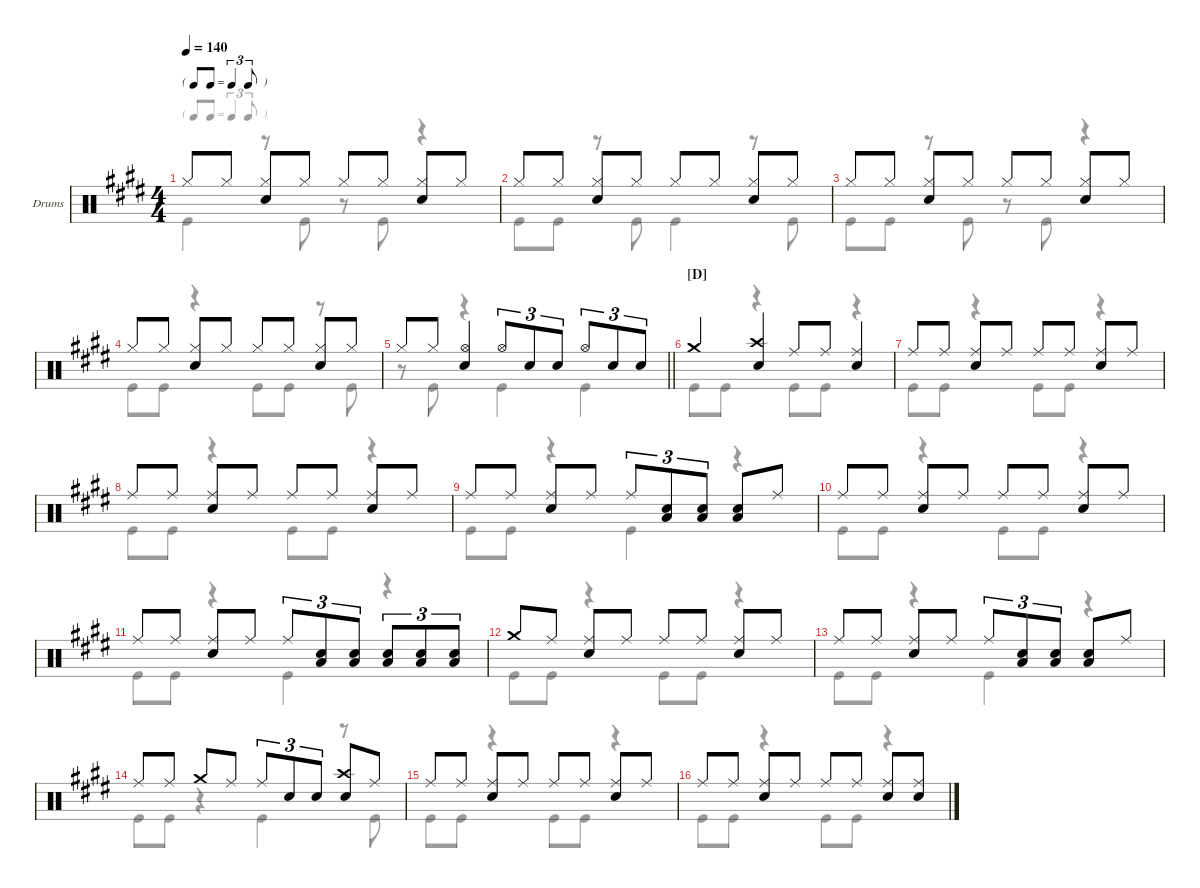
\hideDynamics
\bracketExtendMode groupsimilarinstruments
\firstSystemTrackNameOrientation horizontal
\otherSystemsTrackNameOrientation horizontal
\track ("Drumkit" "Drums") {instrument percussion}
\staff {score}
\articulation defaults
\voice
\ts (4 4)
\tf triplet8th
\scale
0.299825
\tempo 140
\accidentals auto
\clef neutral
\ottava regular
\simile none
\ks e "Hi-Hat (closed)".8{dy f} "Hi-Hat (closed)".8
("Hi-Hat (closed)" "Snare (hit) 2").8 "Hi-Hat (closed)".8 "Hi-Hat (closed)".8 "Hi-Hat (closed)".8 ("Hi-Hat (closed)" "Snare (hit) 2").8 "Hi-Hat (closed)".8 |
\scale
0.312183 "Hi-Hat (closed)".8 "Hi-Hat (closed)".8 ("Hi-Hat (closed)" "Snare (hit) 2").8 "Hi-Hat (closed)".8 "Hi-Hat (closed)".8 "Hi-Hat (closed)".8 ("Hi-Hat (closed)" "Snare (hit) 2").8 "Hi-Hat (closed)".8 |
\scale
0.22556 "Hi-Hat (closed)".8 "Hi-Hat (closed)".8 ("Hi-Hat (closed)" "Snare (hit) 2").8 "Hi-Hat (closed)".8 "Hi-Hat (closed)".8 "Hi-Hat (closed)".8 ("Hi-Hat (closed)" "Snare (hit) 2").8 "Hi-Hat (closed)".8 |
\scale
0.235129 "Hi-Hat (closed)".8 "Hi-Hat (closed)".8 ("Hi-Hat (closed)" "Snare (hit) 2").8 "Hi-Hat (closed)".8 "Hi-Hat (closed)".8 "Hi-Hat (closed)".8 ("Hi-Hat (closed)" "Snare (hit) 2").8 "Hi-Hat (closed)".8 |
\scale
0.394194
\scale
0.227942
\barLineRight lightlight "Hi-Hat (closed)".8 "Hi-Hat (closed)".8
("Hi-Hat (open)" "Snare (hit) 2").4 "Hi-Hat (open)".8{tu (3 2)} "Snare (hit) 2".8{tu (3 2)} "Snare (hit) 2".8{tu (3 2)} "Hi-Hat (open)".8{tu (3 2)} "Snare (hit) 2".8{tu (3 2)} "Snare (hit) 2".8{tu (3 2)} |
\section ("D" "")
\scale
0.301274
\scale
0.306455 "Crash medium (hit)".4 ("Crash high (hit)" "Snare (hit) 2").4 "Ride (middle)".8 "Ride (middle)".8 ("Ride (middle)" "Snare (hit) 2").4 |
\scale
0.305184
\scale
0.228233 "Ride (middle)".8 "Ride (middle)".8 ("Ride (middle)" "Snare (hit) 2").8 "Ride (middle)".8 "Ride (middle)".8 "Ride (middle)".8 ("Ride (middle)" "Snare (hit) 2").8 "Ride (middle)".8 |
\scale
0.384099
\scale
0.233723 "Ride (middle)".8 "Ride (middle)".8 ("Ride (middle)" "Snare (hit) 2").8 "Ride (middle)".8 "Ride (middle)".8 "Ride (middle)".8 ("Ride (middle)" "Snare (hit) 2").8 "Ride (middle)".8 |
\scale
0.329011
\scale
0.232195 "Ride (middle)".8 "Ride (middle)".8 ("Ride (middle)" "Snare (hit) 2").8 "Ride (middle)".8 "Ride (middle)".8{tu (3 2)} ("Snare (hit) 2" "Low Tom (hit)").8{tu (3 2)} ("Snare (hit) 2" "Low Tom (hit)").8{tu (3 2)} ("Snare (hit) 2" "Low Tom (hit)").8 "Ride (middle)".8 |
\scale
0.282913 "Ride (middle)".8 "Ride (middle)".8 ("Ride (middle)" "Snare (hit) 2").8 "Ride (middle)".8 "Ride (middle)".8 "Ride (middle)".8 ("Ride (middle)" "Snare (hit) 2").8 "Ride (middle)".8 |
\scale
0.39393 "Ride (middle)".8 "Ride (middle)".8 ("Ride (middle)" "Snare (hit) 2").8 "Ride (middle)".8 "Ride (middle)".8{tu (3 2)} ("Snare (hit) 2" "Low Tom (hit)").8{tu (3 2)} ("Snare (hit) 2" "Low Tom (hit)").8{tu (3 2)} ("Snare (hit) 2" "Low Tom (hit)").8{tu (3 2)} ("Snare (hit) 2" "Low Tom (hit)").8{tu (3 2)} ("Snare (hit) 2" "Low Tom (hit)").8{tu (3 2)} |
\scale
0.309876 "Crash medium (hit)".8 "Ride (middle)".8 ("Ride (middle)" "Snare (hit) 2").8 "Ride (middle)".8 "Ride (middle)".8 "Ride (middle)".8 ("Ride (middle)" "Snare (hit) 2").8 "Ride (middle)".8 |
\scale
0.296886 "Ride (middle)".8 "Ride (middle)".8 ("Ride (middle)" "Snare (hit) 2").8 "Ride (middle)".8 "Ride (middle)".8{tu (3 2)} ("Snare (hit) 2" "Low Tom (hit)").8{tu (3 2)} ("Snare (hit) 2" "Low Tom (hit)").8{tu (3 2)} ("Snare (hit) 2" "Low Tom (hit)").8 "Ride (middle)".8 |
\scale
0.436755 "Ride (middle)".8 "Ride (middle)".8 "Crash medium (hit)".8 "Ride (middle)".8 "Ride (middle)".8{tu (3 2)} "Snare (hit) 2".8{tu (3 2)} "Snare (hit) 2".8{tu (3 2)} ("Crash high (hit)" "Snare (hit) 2").8 "Ride (middle)".8 |
\scale
0.302785 "Ride (middle)".8 "Ride (middle)".8 ("Ride (middle)" "Snare (hit) 2").8 "Ride (middle)".8 "Ride (middle)".8 "Ride (middle)".8 ("Ride (middle)" "Snare (hit) 2").8 "Ride (middle)".8 |
\scale
0.321625 "Ride (middle)".8 "Ride (middle)".8 ("Ride (middle)" "Snare (hit) 2").8 "Ride (middle)".8 "Ride (middle)".8 "Ride (middle)".8 ("Ride (middle)" "Snare (hit) 2").8 ("Ride (middle)" "Snare (hit) 2").8
\voice
\clef neutral
\ottava regular
\simile none
\ks e "Kick (hit)".4{dy mf}
r.8 "Kick (hit)".8 r.8 "Kick (hit)".8 r.4 |
\scale
0.312183 "Kick (hit)".8 "Kick (hit)".8 r.8 "Kick (hit)".8 "Kick (hit)".4 r.8 "Kick (hit)".8 |
\scale
0.22556 "Kick (hit)".8 "Kick (hit)".8 r.8 "Kick (hit)".8 r.8 "Kick (hit)".8 r.4 |
\scale
0.235129 "Kick (hit)".8 "Kick (hit)".8 r.4 "Kick (hit)".8 "Kick (hit)".8 r.8 "Kick (hit)".8 |
\scale
0.227942
\barLineRight lightlight
r.8 "Kick (hit)".8 r.4 "Kick (hit)".4 "Kick (hit)".4 |
\scale
0.306455 "Kick (hit)".8 "Kick (hit)".8 r.4 "Kick (hit)".8 "Kick (hit)".8 r.4 |
\scale
0.228233 "Kick (hit)".8 "Kick (hit)".8 r.4 "Kick (hit)".8 "Kick (hit)".8 r.4 |
\scale
0.233723 "Kick (hit)".8 "Kick (hit)".8 r.4 "Kick (hit)".8 "Kick (hit)".8 r.4 |
\scale
0.232195 "Kick (hit)".8 "Kick (hit)".8 r.4 "Kick (hit)".4 r.4 |
"Kick (hit)".8 "Kick (hit)".8 r.4 "Kick (hit)".8 "Kick (hit)".8 r.4 |
"Kick (hit)".8 "Kick (hit)".8 r.4 "Kick (hit)".4 r.4 |
"Kick (hit)".8 "Kick (hit)".8 r.4 "Kick (hit)".8 "Kick (hit)".8 r.4 |
"Kick (hit)".8 "Kick (hit)".8 r.4 "Kick (hit)".4 r.4 |
"Kick (hit)".8 "Kick (hit)".8 r.4 "Kick (hit)".4 r.8 "Kick (hit)".8 |
"Kick (hit)".8 "Kick (hit)".8 r.4 "Kick (hit)".8 "Kick (hit)".8 r.4 |
"Kick (hit)".8 "Kick (hit)".8 r.4 "Kick (hit)".8 "Kick (hit)".8 r.4
